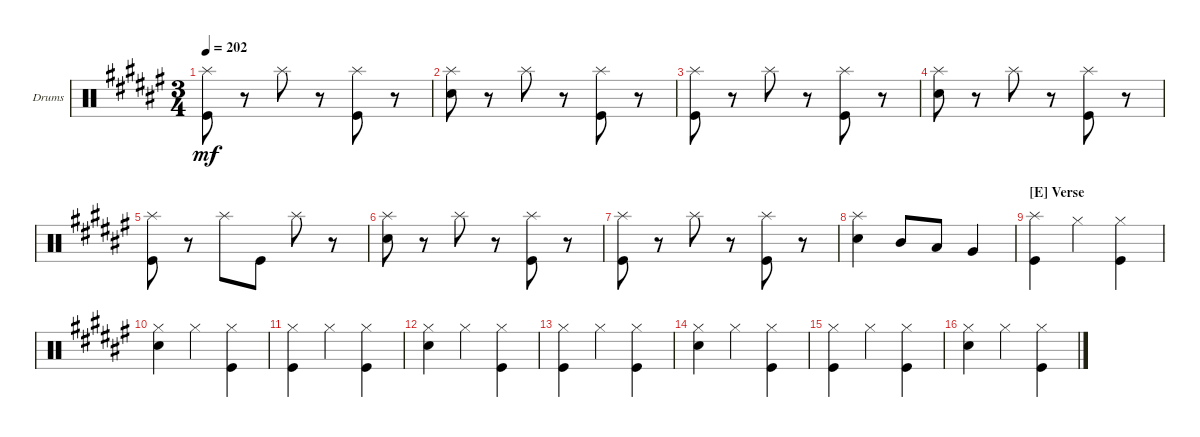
\defaultSystemsLayout 4
\bracketExtendMode groupsimilarinstruments
\firstSystemTrackNameOrientation horizontal
\otherSystemsTrackNameOrientation horizontal
\track ("Drumkit" "Drums") {instrument percussion}
\staff {score}
\articulation defaults
\ts (3 4)
\tempo 202
\clef neutral
\ks f#
("Kick (hit)" "Splash (hit)").8{dy mf} r.8 "Splash (hit)".8 r.8 ("Splash (hit)" "Kick (hit)").8 r.8 |
("Snare (hit) 2" "Splash (hit)").8 r.8 "Splash (hit)".8 r.8 ("Kick (hit)" "Splash (hit)").8 r.8 |
("Kick (hit)" "Splash (hit)").8 r.8 "Splash (hit)".8 r.8 ("Kick (hit)" "Splash (hit)").8 r.8 |
("Snare (hit) 2" "Splash (hit)").8 r.8 "Splash (hit)".8 r.8 ("Kick (hit)" "Splash (hit)").8 r.8 |
("Kick (hit)" "Splash (hit)").8 r.8 "Splash (hit)".8 "Kick (hit)".8 "Splash (hit)".8 r.8 |
("Snare (hit) 2" "Splash (hit)").8 r.8 "Splash (hit)".8 r.8 ("Kick (hit)" "Splash (hit)").8 r.8 |
("Kick (hit)" "Splash (hit)").8 r.8 "Splash (hit)".8 r.8 ("Kick (hit)" "Splash (hit)").8 r.8 |
("Snare (hit) 2" "Splash (hit)").4 "Mid Tom (hit)".8 "Low Tom (hit)".8 "Very Low Tom (hit)".4 |
\section ("E" "Verse")
("Splash (hit)" "Kick (hit)").4 "Hi-Hat (closed)".4 ("Hi-Hat (closed)" "Kick (hit)").4 |
("Snare (hit) 2" "Hi-Hat (closed)").4 "Hi-Hat (closed)".4 ("Hi-Hat (closed)" "Kick (hit)").4 |
("Kick (hit)" "Hi-Hat (closed)").4 "Hi-Hat (closed)".4 ("Hi-Hat (closed)" "Kick (hit)").4 |
("Hi-Hat (closed)" "Snare (hit) 2").4 "Hi-Hat (closed)".4 ("Hi-Hat (closed)" "Kick (hit)").4 |
("Hi-Hat (closed)" "Kick (hit)").4 "Hi-Hat (closed)".4 ("Hi-Hat (closed)" "Kick (hit)").4 |
("Snare (hit) 2" "Hi-Hat (closed)").4 "Hi-Hat (closed)".4 ("Hi-Hat (closed)" "Kick (hit)").4 |
("Kick (hit)" "Hi-Hat (closed)").4 "Hi-Hat (closed)".4 ("Hi-Hat (closed)" "Kick (hit)").4 |
("Hi-Hat (closed)" "Snare (hit) 2").4 "Hi-Hat (closed)".4 ("Hi-Hat (closed)" "Kick (hit)").4
